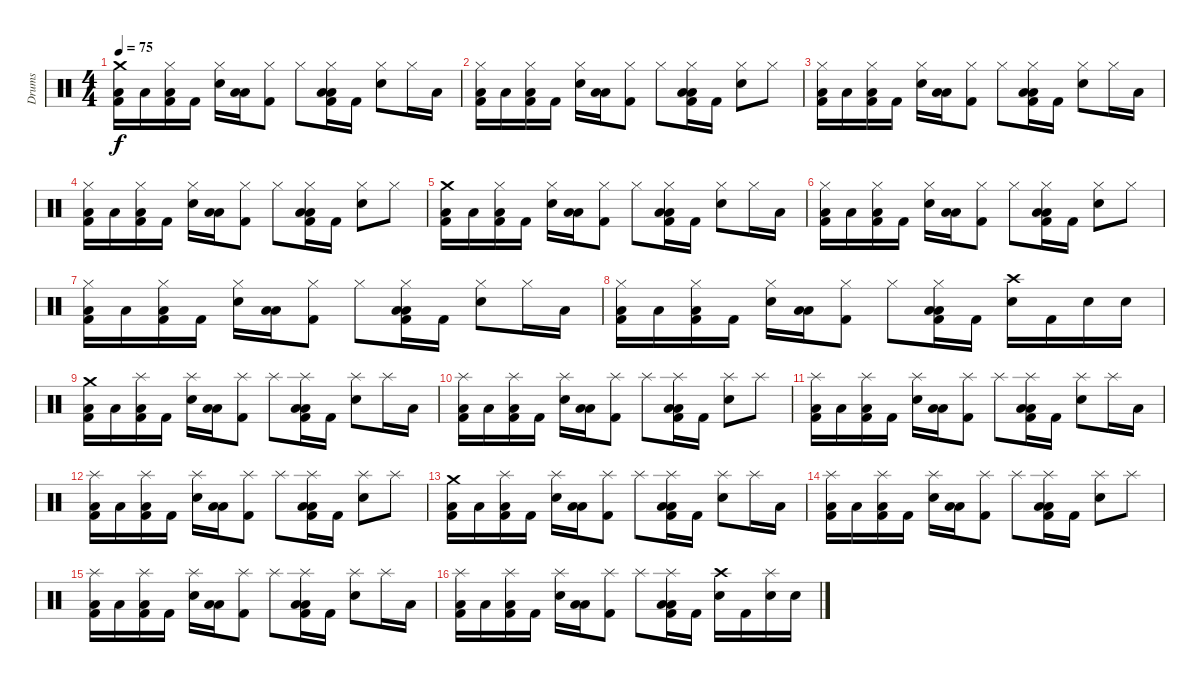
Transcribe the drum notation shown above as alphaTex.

\track ("Drums" "Drums") {instrument percussion}
\staff {score}
\articulation defaults
\ts (4 4)
\tempo 75
\clef neutral
\ks c
("Kick (hit) 2" "Low Floor Tom (hit)" "Crash medium (hit)").16{dy f} "Low Tom (hit)".16 ("Kick (hit) 2" "Low Floor Tom (hit)" "Hi-Hat (closed)").16 "Kick (hit) 2".16 ("Snare (hit) 2" "Hi-Hat (closed)").16 ("Low Tom (hit)" "Low Floor Tom (hit)").16 ("Kick (hit) 2" "Hi-Hat (closed)").8 "Hi-Hat (closed)".8 ("Kick (hit) 2" "Low Floor Tom (hit)" "Low Tom (hit)" "Hi-Hat (closed)").16 "Kick (hit) 2".16 ("Snare (hit) 2" "Hi-Hat (closed)").8 "Hi-Hat (closed)".16 "Low Tom (hit)".16 |
("Kick (hit) 2" "Low Floor Tom (hit)" "Hi-Hat (closed)").16 "Low Tom (hit)".16 ("Kick (hit) 2" "Low Floor Tom (hit)" "Hi-Hat (closed)").16 "Kick (hit) 2".16 ("Snare (hit) 2" "Hi-Hat (closed)").16 ("Low Tom (hit)" "Low Floor Tom (hit)").16 ("Kick (hit) 2" "Hi-Hat (closed)").8 "Hi-Hat (closed)".8 ("Kick (hit) 2" "Low Floor Tom (hit)" "Low Tom (hit)" "Hi-Hat (closed)").16 "Kick (hit) 2".16 ("Snare (hit) 2" "Hi-Hat (closed)").8 "Hi-Hat (closed)".8 |
("Kick (hit) 2" "Low Floor Tom (hit)" "Hi-Hat (closed)").16 "Low Tom (hit)".16 ("Kick (hit) 2" "Low Floor Tom (hit)" "Hi-Hat (closed)").16 "Kick (hit) 2".16 ("Snare (hit) 2" "Hi-Hat (closed)").16 ("Low Tom (hit)" "Low Floor Tom (hit)").16 ("Kick (hit) 2" "Hi-Hat (closed)").8 "Hi-Hat (closed)".8 ("Kick (hit) 2" "Low Floor Tom (hit)" "Low Tom (hit)" "Hi-Hat (closed)").16 "Kick (hit) 2".16 ("Snare (hit) 2" "Hi-Hat (closed)").8 "Hi-Hat (closed)".16 "Low Tom (hit)".16 |
("Kick (hit) 2" "Low Floor Tom (hit)" "Hi-Hat (closed)").16 "Low Tom (hit)".16 ("Kick (hit) 2" "Low Floor Tom (hit)" "Hi-Hat (closed)").16 "Kick (hit) 2".16 ("Snare (hit) 2" "Hi-Hat (closed)").16 ("Low Tom (hit)" "Low Floor Tom (hit)").16 ("Kick (hit) 2" "Hi-Hat (closed)").8 "Hi-Hat (closed)".8 ("Kick (hit) 2" "Low Floor Tom (hit)" "Low Tom (hit)" "Hi-Hat (closed)").16 "Kick (hit) 2".16 ("Snare (hit) 2" "Hi-Hat (closed)").8 "Hi-Hat (closed)".8 |
("Kick (hit) 2" "Low Floor Tom (hit)" "Crash medium (hit)").16 "Low Tom (hit)".16 ("Kick (hit) 2" "Low Floor Tom (hit)" "Hi-Hat (closed)").16 "Kick (hit) 2".16 ("Snare (hit) 2" "Hi-Hat (closed)").16 ("Low Tom (hit)" "Low Floor Tom (hit)").16 ("Kick (hit) 2" "Hi-Hat (closed)").8 "Hi-Hat (closed)".8 ("Kick (hit) 2" "Low Floor Tom (hit)" "Low Tom (hit)" "Hi-Hat (closed)").16 "Kick (hit) 2".16 ("Snare (hit) 2" "Hi-Hat (closed)").8 "Hi-Hat (closed)".16 "Low Tom (hit)".16 |
("Kick (hit) 2" "Low Floor Tom (hit)" "Hi-Hat (closed)").16 "Low Tom (hit)".16 ("Kick (hit) 2" "Low Floor Tom (hit)" "Hi-Hat (closed)").16 "Kick (hit) 2".16 ("Snare (hit) 2" "Hi-Hat (closed)").16 ("Low Tom (hit)" "Low Floor Tom (hit)").16 ("Kick (hit) 2" "Hi-Hat (closed)").8 "Hi-Hat (closed)".8 ("Kick (hit) 2" "Low Floor Tom (hit)" "Low Tom (hit)" "Hi-Hat (closed)").16 "Kick (hit) 2".16 ("Snare (hit) 2" "Hi-Hat (closed)").8 "Hi-Hat (closed)".8 |
("Kick (hit) 2" "Low Floor Tom (hit)" "Hi-Hat (closed)").16 "Low Tom (hit)".16 ("Kick (hit) 2" "Low Floor Tom (hit)" "Hi-Hat (closed)").16 "Kick (hit) 2".16 ("Snare (hit) 2" "Hi-Hat (closed)").16 ("Low Tom (hit)" "Low Floor Tom (hit)").16 ("Kick (hit) 2" "Hi-Hat (closed)").8 "Hi-Hat (closed)".8 ("Kick (hit) 2" "Low Floor Tom (hit)" "Low Tom (hit)" "Hi-Hat (closed)").16 "Kick (hit) 2".16 ("Snare (hit) 2" "Hi-Hat (closed)").8 "Hi-Hat (closed)".16 "Low Tom (hit)".16 |
("Kick (hit) 2" "Low Floor Tom (hit)" "Hi-Hat (closed)").16 "Low Tom (hit)".16 ("Kick (hit) 2" "Low Floor Tom (hit)" "Hi-Hat (closed)").16 "Kick (hit) 2".16 ("Snare (hit) 2" "Hi-Hat (closed)").16 ("Low Tom (hit)" "Low Floor Tom (hit)").16 ("Kick (hit) 2" "Hi-Hat (closed)").8 "Hi-Hat (closed)".8 ("Kick (hit) 2" "Low Floor Tom (hit)" "Low Tom (hit)" "Hi-Hat (closed)").16 "Kick (hit) 2".16 ("Snare (hit) 2" "Crash high (hit)").16 "Kick (hit) 2".16 "Snare (hit) 2".16 "Snare (hit) 2".16 |
("Kick (hit) 2" "Low Floor Tom (hit)" "Crash medium (hit)").16 "Low Tom (hit)".16 ("Kick (hit) 2" "Low Floor Tom (hit)" "Splash (hit)").16 "Kick (hit) 2".16 ("Snare (hit) 2" "Splash (hit)").16 ("Low Tom (hit)" "Low Floor Tom (hit)").16 ("Kick (hit) 2" "Splash (hit)").8 "Splash (hit)".8 ("Kick (hit) 2" "Low Floor Tom (hit)" "Low Tom (hit)" "Splash (hit)").16 "Kick (hit) 2".16 ("Snare (hit) 2" "Splash (hit)").8 "Splash (hit)".16 "Low Tom (hit)".16 |
("Kick (hit) 2" "Low Floor Tom (hit)" "Splash (hit)").16 "Low Tom (hit)".16 ("Kick (hit) 2" "Low Floor Tom (hit)" "Splash (hit)").16 "Kick (hit) 2".16 ("Snare (hit) 2" "Splash (hit)").16 ("Low Tom (hit)" "Low Floor Tom (hit)").16 ("Kick (hit) 2" "Splash (hit)").8 "Splash (hit)".8 ("Kick (hit) 2" "Low Floor Tom (hit)" "Low Tom (hit)" "Splash (hit)").16 "Kick (hit) 2".16 ("Snare (hit) 2" "Splash (hit)").8 "Splash (hit)".8 |
("Kick (hit) 2" "Low Floor Tom (hit)" "Splash (hit)").16 "Low Tom (hit)".16 ("Kick (hit) 2" "Low Floor Tom (hit)" "Splash (hit)").16 "Kick (hit) 2".16 ("Snare (hit) 2" "Splash (hit)").16 ("Low Tom (hit)" "Low Floor Tom (hit)").16 ("Kick (hit) 2" "Splash (hit)").8 "Splash (hit)".8 ("Kick (hit) 2" "Low Floor Tom (hit)" "Low Tom (hit)" "Splash (hit)").16 "Kick (hit) 2".16 ("Snare (hit) 2" "Splash (hit)").8 "Splash (hit)".16 "Low Tom (hit)".16 |
("Kick (hit) 2" "Low Floor Tom (hit)" "Splash (hit)").16 "Low Tom (hit)".16 ("Kick (hit) 2" "Low Floor Tom (hit)" "Splash (hit)").16 "Kick (hit) 2".16 ("Snare (hit) 2" "Splash (hit)").16 ("Low Tom (hit)" "Low Floor Tom (hit)").16 ("Kick (hit) 2" "Splash (hit)").8 "Splash (hit)".8 ("Kick (hit) 2" "Low Floor Tom (hit)" "Low Tom (hit)" "Splash (hit)").16 "Kick (hit) 2".16 ("Snare (hit) 2" "Splash (hit)").8 "Splash (hit)".8 |
("Kick (hit) 2" "Low Floor Tom (hit)" "Crash medium (hit)").16 "Low Tom (hit)".16 ("Kick (hit) 2" "Low Floor Tom (hit)" "Splash (hit)").16 "Kick (hit) 2".16 ("Snare (hit) 2" "Splash (hit)").16 ("Low Tom (hit)" "Low Floor Tom (hit)").16 ("Kick (hit) 2" "Splash (hit)").8 "Splash (hit)".8 ("Kick (hit) 2" "Low Floor Tom (hit)" "Low Tom (hit)" "Splash (hit)").16 "Kick (hit) 2".16 ("Snare (hit) 2" "Splash (hit)").8 "Splash (hit)".16 "Low Tom (hit)".16 |
("Kick (hit) 2" "Low Floor Tom (hit)" "Splash (hit)").16 "Low Tom (hit)".16 ("Kick (hit) 2" "Low Floor Tom (hit)" "Splash (hit)").16 "Kick (hit) 2".16 ("Snare (hit) 2" "Splash (hit)").16 ("Low Tom (hit)" "Low Floor Tom (hit)").16 ("Kick (hit) 2" "Splash (hit)").8 "Splash (hit)".8 ("Kick (hit) 2" "Low Floor Tom (hit)" "Low Tom (hit)" "Splash (hit)").16 "Kick (hit) 2".16 ("Snare (hit) 2" "Splash (hit)").8 "Splash (hit)".8 |
("Kick (hit) 2" "Low Floor Tom (hit)" "Splash (hit)").16 "Low Tom (hit)".16 ("Kick (hit) 2" "Low Floor Tom (hit)" "Splash (hit)").16 "Kick (hit) 2".16 ("Snare (hit) 2" "Splash (hit)").16 ("Low Tom (hit)" "Low Floor Tom (hit)").16 ("Kick (hit) 2" "Splash (hit)").8 "Splash (hit)".8 ("Kick (hit) 2" "Low Floor Tom (hit)" "Low Tom (hit)" "Splash (hit)").16 "Kick (hit) 2".16 ("Snare (hit) 2" "Splash (hit)").8 "Splash (hit)".16 "Low Tom (hit)".16 |
("Kick (hit) 2" "Low Floor Tom (hit)" "Splash (hit)").16 "Low Tom (hit)".16 ("Kick (hit) 2" "Low Floor Tom (hit)" "Splash (hit)").16 "Kick (hit) 2".16 ("Snare (hit) 2" "Splash (hit)").16 ("Low Tom (hit)" "Low Floor Tom (hit)").16 ("Kick (hit) 2" "Splash (hit)").8 "Splash (hit)".8 ("Kick (hit) 2" "Low Floor Tom (hit)" "Low Tom (hit)" "Splash (hit)").16 "Kick (hit) 2".16 ("Snare (hit) 2" "Crash high (hit)").16 "Kick (hit) 2".16 ("Snare (hit) 2" "Splash (hit)").16 "Snare (hit) 2".16
